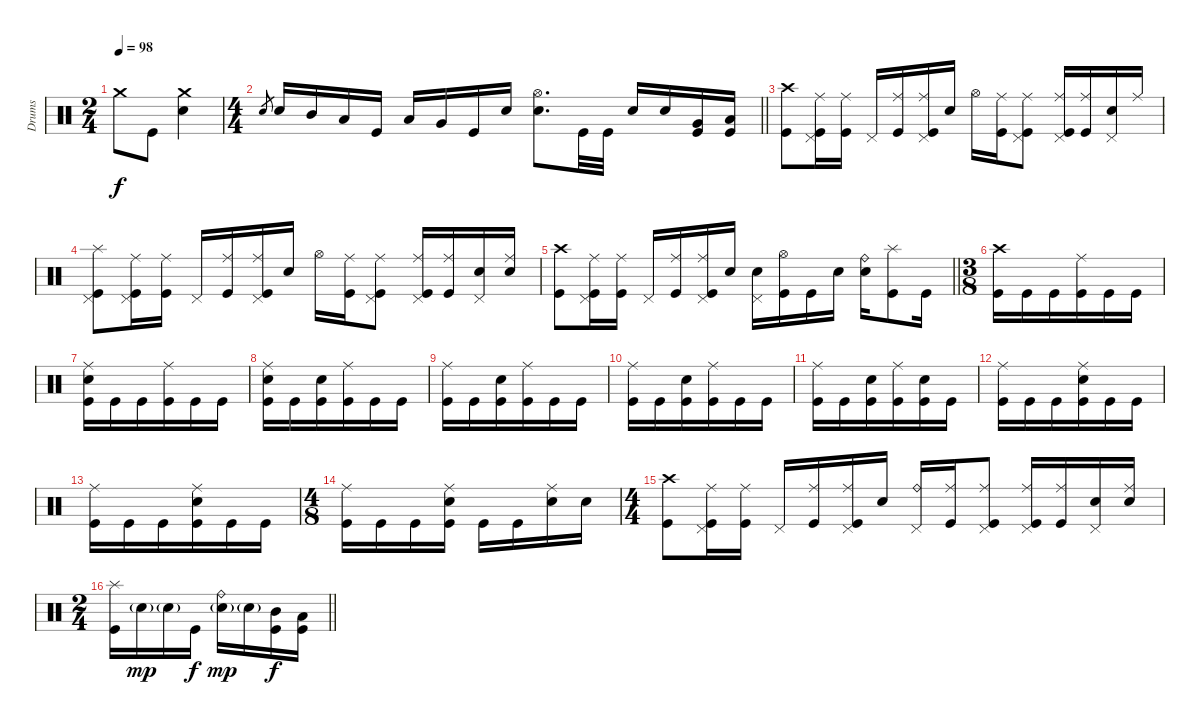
\track ("Drums" "Drums") {instrument percussion}
\staff
\articulation defaults
\ts (2 4)
\tempo 98
\clef neutral
\ks c "Crash medium (hit)".8{dy f} "Kick (hit)".8
("Crash medium (hit)" "Electric Snare (hit)").4 |
\ts (4 4)
\barLineRight lightlight "Electric Snare (hit)".8{gr} "Electric Snare (hit)".16 "Mid Tom (hit)".16 "Low Tom (hit)".16 "Kick (hit)".16 "Low Tom (hit)".16 "Very Low Tom (hit)".16 "Kick (hit)".16 "Electric Snare (hit)".16
("Hi-Hat (open)" "Electric Snare (hit)").8{d} "Kick (hit)".32 "Kick (hit)".32 "Electric Snare (hit)".16 "Electric Snare (hit)".16 ("Very Low Tom (hit)" "Kick (hit)").16 ("Low Floor Tom (hit)" "Kick (hit)").16 |
\section ("" "")
("Crash high (hit)" "Kick (hit)").8 ("Ride (middle)" "Pedal Hi-Hat (hit)" "Kick (hit)").16 ("Ride (middle)" "Kick (hit)").16 "Pedal Hi-Hat (hit)".16 ("Ride (middle)" "Kick (hit)").16 ("Ride (middle)" "Pedal Hi-Hat (hit)" "Kick (hit)").16 "Electric Snare (hit)".16 "Hi-Hat (open)".16 ("Ride (middle)" "Kick (hit)").16 ("Ride (middle)" "Pedal Hi-Hat (hit)" "Kick (hit)").8 ("Ride (middle)" "Pedal Hi-Hat (hit)" "Kick (hit)").16 ("Ride (middle)" "Kick (hit)").16 ("Pedal Hi-Hat (hit)" "Electric Snare (hit)").16 "Ride (middle)".16 |
("Splash (hit)" "Pedal Hi-Hat (hit)" "Kick (hit)").8 ("Ride (middle)" "Pedal Hi-Hat (hit)" "Kick (hit)").16 ("Ride (middle)" "Kick (hit)").16 "Pedal Hi-Hat (hit)".16 ("Ride (middle)" "Kick (hit)").16 ("Ride (middle)" "Pedal Hi-Hat (hit)" "Kick (hit)").16 "Electric Snare (hit)".16 "Hi-Hat (open)".16 ("Ride (middle)" "Kick (hit)").16 ("Ride (middle)" "Pedal Hi-Hat (hit)" "Kick (hit)").8 ("Ride (middle)" "Pedal Hi-Hat (hit)" "Kick (hit)").16 ("Ride (middle)" "Kick (hit)").16 ("Pedal Hi-Hat (hit)" "Electric Snare (hit)").16 ("Ride (middle)" "Electric Snare (hit)").16 |
\barLineRight lightlight
("Crash high (hit)" "Kick (hit)").8 ("Ride (middle)" "Pedal Hi-Hat (hit)" "Kick (hit)").16 ("Ride (middle)" "Kick (hit)").16 "Pedal Hi-Hat (hit)".16 ("Ride (middle)" "Kick (hit)").16 ("Ride (middle)" "Pedal Hi-Hat (hit)" "Kick (hit)").16 "Electric Snare (hit)".16 ("Pedal Hi-Hat (hit)" "Electric Snare (hit)").16 ("Hi-Hat (open)" "Kick (hit)").16 "Kick (hit)".16 "Electric Snare (hit)".16 ("Ride (bell)" "Electric Snare (hit)").16 ("Splash (hit)" "Kick (hit)").8 "Kick (hit)".16 |
\ts (3 8)
("Crash high (hit)" "Kick (hit)").16 "Kick (hit)".16 "Kick (hit)".16 ("Ride (middle)" "Kick (hit)").16 "Kick (hit)".16 "Kick (hit)".16 |
("Ride (middle)" "Electric Snare (hit)" "Kick (hit)").16 "Kick (hit)".16 "Kick (hit)".16 ("Ride (middle)" "Kick (hit)").16 "Kick (hit)".16 "Kick (hit)".16 |
("Ride (middle)" "Electric Snare (hit)" "Kick (hit)").16 "Kick (hit)".16 ("Electric Snare (hit)" "Kick (hit)").16 ("Ride (middle)" "Kick (hit)").16 "Kick (hit)".16 "Kick (hit)".16 |
("Ride (middle)" "Kick (hit)").16 "Kick (hit)".16 ("Electric Snare (hit)" "Kick (hit)").16 ("Ride (middle)" "Kick (hit)").16 "Kick (hit)".16 "Kick (hit)".16 |
("Ride (middle)" "Kick (hit)").16 "Kick (hit)".16 ("Electric Snare (hit)" "Kick (hit)").16 ("Ride (middle)" "Kick (hit)").16 "Kick (hit)".16 "Kick (hit)".16 |
("Ride (middle)" "Kick (hit)").16 "Kick (hit)".16 ("Electric Snare (hit)" "Kick (hit)").16 ("Ride (middle)" "Kick (hit)").16 ("Electric Snare (hit)" "Kick (hit)").16 "Kick (hit)".16 |
("Ride (middle)" "Kick (hit)").16 "Kick (hit)".16 "Kick (hit)".16 ("Ride (middle)" "Electric Snare (hit)" "Kick (hit)").16 "Kick (hit)".16 "Kick (hit)".16 |
("Ride (middle)" "Kick (hit)").16 "Kick (hit)".16 "Kick (hit)".16 ("Ride (middle)" "Electric Snare (hit)" "Kick (hit)").16 "Kick (hit)".16 "Kick (hit)".16 |
\ts (4 8)
("Ride (middle)" "Kick (hit)").16 "Kick (hit)".16 "Kick (hit)".16 ("Ride (middle)" "Electric Snare (hit)" "Kick (hit)").16 "Kick (hit)".16 "Kick (hit)".16 ("Ride (middle)" "Electric Snare (hit)").16 "Electric Snare (hit)".16 |
\ts (4 4)
("Crash high (hit)" "Kick (hit)").8 ("Ride (middle)" "Pedal Hi-Hat (hit)" "Kick (hit)").16 ("Ride (middle)" "Kick (hit)").16 "Pedal Hi-Hat (hit)".16 ("Ride (middle)" "Kick (hit)").16 ("Ride (middle)" "Pedal Hi-Hat (hit)" "Kick (hit)").16 "Electric Snare (hit)".16 ("Ride (bell)" "Pedal Hi-Hat (hit)").16 ("Ride (middle)" "Kick (hit)").16 ("Ride (middle)" "Pedal Hi-Hat (hit)" "Kick (hit)").8 ("Ride (middle)" "Pedal Hi-Hat (hit)" "Kick (hit)").16 ("Ride (middle)" "Kick (hit)").16 ("Pedal Hi-Hat (hit)" "Electric Snare (hit)").16 ("Ride (middle)" "Electric Snare (hit)").16 |
\ts (2 4)
\barLineRight lightlight
("Splash (hit)" "Kick (hit)").16 "Electric Snare (hit)"{g}.16{dy mp} "Electric Snare (hit)"{g}.16 "Kick (hit)".16{dy f} ("Ride (bell)" "Electric Snare (hit)"{g}).16{dy mp} "Electric Snare (hit)"{g}.16 ("Mid Tom (hit)" "Kick (hit)").16{dy f} ("Low Tom (hit)" "Kick (hit)").16
